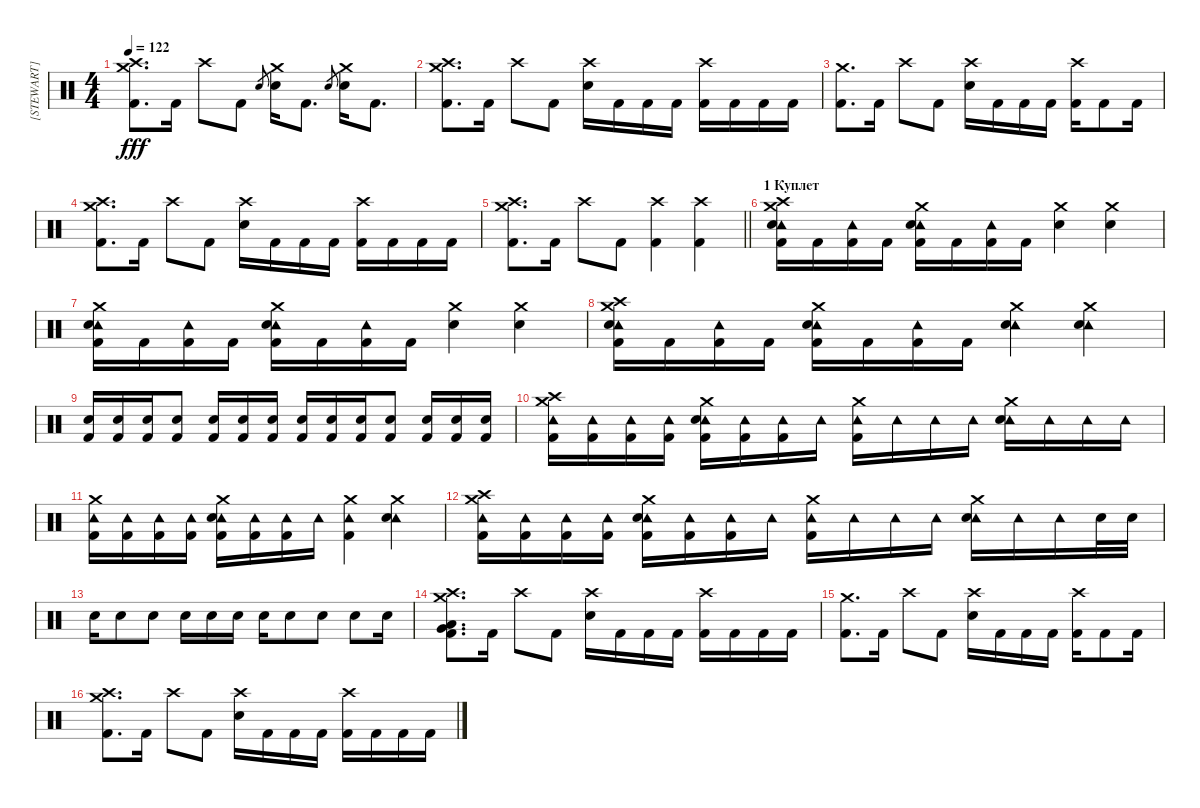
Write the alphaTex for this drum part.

\track ("[STEWART]" "[STEWART]") {instrument percussion}
\staff {score}
\articulation defaults
\ts (4 4)
\tempo 122
\clef neutral
\ks c
("Crash medium (hit)" "Crash high (hit)" "Kick (hit) 2").8{d dy fff} "Kick (hit) 2".16 "Crash high (hit)".8 "Kick (hit) 2".8 "Electric Snare (hit)".8{gr} ("Crash medium (hit)" "Electric Snare (hit)").16 "Kick (hit) 2".8{d} "Electric Snare (hit)".8{gr} ("Crash medium (hit)" "Electric Snare (hit)").16 "Kick (hit) 2".8{d} |
("Crash medium (hit)" "Crash high (hit)" "Kick (hit) 2").8{d} "Kick (hit) 2".16 "Crash high (hit)".8 "Kick (hit) 2".8 ("Crash high (hit)" "Electric Snare (hit)").16 "Kick (hit) 2".16 "Kick (hit) 2".16 "Kick (hit) 2".16 ("Crash high (hit)" "Kick (hit) 2").16 "Kick (hit) 2".16 "Kick (hit) 2".16 "Kick (hit) 2".16 |
("Crash medium (hit)" "Kick (hit) 2").8{d} "Kick (hit) 2".16 "Crash high (hit)".8 "Kick (hit) 2".8 ("Crash high (hit)" "Electric Snare (hit)").16 "Kick (hit) 2".16 "Kick (hit) 2".16 "Kick (hit) 2".16 ("Crash high (hit)" "Kick (hit) 2").16 "Kick (hit) 2".8 "Kick (hit) 2".16 |
("Crash medium (hit)" "Crash high (hit)" "Kick (hit) 2").8{d} "Kick (hit) 2".16 "Crash high (hit)".8 "Kick (hit) 2".8 ("Crash high (hit)" "Electric Snare (hit)").16 "Kick (hit) 2".16 "Kick (hit) 2".16 "Kick (hit) 2".16 ("Crash high (hit)" "Kick (hit) 2").16 "Kick (hit) 2".16 "Kick (hit) 2".16 "Kick (hit) 2".16 |
\barLineRight lightlight
("Crash medium (hit)" "Crash high (hit)" "Kick (hit) 2").8{d} "Kick (hit) 2".16 "Crash high (hit)".8 "Kick (hit) 2".8 ("Crash high (hit)" "Kick (hit) 2").4 ("Crash high (hit)" "Kick (hit) 2").4 |
\section ("" "1 Куплет")
("Crash medium (hit)" "Crash high (hit)" "Tambourine (hit)" "Electric Snare (hit)" "Kick (hit) 2").16 "Kick (hit) 2".16 ("Tambourine (hit)" "Kick (hit) 2").16 "Kick (hit) 2".16 ("Crash medium (hit)" "Tambourine (hit)" "Electric Snare (hit)" "Kick (hit) 2").16 "Kick (hit) 2".16 ("Tambourine (hit)" "Kick (hit) 2").16 "Kick (hit) 2".16 ("Crash medium (hit)" "Electric Snare (hit)").4 ("Crash medium (hit)" "Electric Snare (hit)").4 |
("Crash medium (hit)" "Tambourine (hit)" "Electric Snare (hit)" "Kick (hit) 2").16 "Kick (hit) 2".16 ("Tambourine (hit)" "Kick (hit) 2").16 "Kick (hit) 2".16 ("Crash medium (hit)" "Tambourine (hit)" "Electric Snare (hit)" "Kick (hit) 2").16 "Kick (hit) 2".16 ("Tambourine (hit)" "Kick (hit) 2").16 "Kick (hit) 2".16 ("Crash medium (hit)" "Electric Snare (hit)").4 ("Crash medium (hit)" "Electric Snare (hit)").4 |
("Crash medium (hit)" "Crash high (hit)" "Tambourine (hit)" "Electric Snare (hit)" "Kick (hit) 2").16 "Kick (hit) 2".16 ("Tambourine (hit)" "Kick (hit) 2").16 "Kick (hit) 2".16 ("Crash medium (hit)" "Tambourine (hit)" "Electric Snare (hit)" "Kick (hit) 2").16 "Kick (hit) 2".16 ("Tambourine (hit)" "Kick (hit) 2").16 "Kick (hit) 2".16 ("Crash medium (hit)" "Tambourine (hit)" "Electric Snare (hit)").4 ("Crash medium (hit)" "Tambourine (hit)" "Electric Snare (hit)").4 |
("Electric Snare (hit)" "Kick (hit) 2").16 ("Electric Snare (hit)" "Kick (hit) 2").16 ("Electric Snare (hit)" "Kick (hit) 2").16 ("Electric Snare (hit)" "Kick (hit) 2").8 ("Electric Snare (hit)" "Kick (hit) 2").16 ("Electric Snare (hit)" "Kick (hit) 2").16 ("Electric Snare (hit)" "Kick (hit) 2").16 ("Electric Snare (hit)" "Kick (hit) 2").16 ("Electric Snare (hit)" "Kick (hit) 2").16 ("Electric Snare (hit)" "Kick (hit) 2").16 ("Electric Snare (hit)" "Kick (hit) 2").8 ("Electric Snare (hit)" "Kick (hit) 2").16 ("Electric Snare (hit)" "Kick (hit) 2").16 ("Electric Snare (hit)" "Kick (hit) 2").16 |
("Crash medium (hit)" "Crash high (hit)" "Tambourine (hit)" "Kick (hit) 2").16 ("Tambourine (hit)" "Kick (hit) 2").16 ("Tambourine (hit)" "Kick (hit) 2").16 ("Tambourine (hit)" "Kick (hit) 2").16 ("Crash medium (hit)" "Tambourine (hit)" "Electric Snare (hit)" "Kick (hit) 2").16 ("Tambourine (hit)" "Kick (hit) 2").16 ("Tambourine (hit)" "Kick (hit) 2").16 "Tambourine (hit)".16 ("Crash medium (hit)" "Tambourine (hit)" "Kick (hit) 2").16 "Tambourine (hit)".16 "Tambourine (hit)".16 "Tambourine (hit)".16 ("Crash medium (hit)" "Tambourine (hit)" "Electric Snare (hit)").16 "Tambourine (hit)".16 "Tambourine (hit)".16 "Tambourine (hit)".16 |
("Crash medium (hit)" "Tambourine (hit)" "Kick (hit) 2").16 ("Tambourine (hit)" "Kick (hit) 2").16 ("Tambourine (hit)" "Kick (hit) 2").16 ("Tambourine (hit)" "Kick (hit) 2").16 ("Crash medium (hit)" "Tambourine (hit)" "Electric Snare (hit)" "Kick (hit) 2").16 ("Tambourine (hit)" "Kick (hit) 2").16 ("Tambourine (hit)" "Kick (hit) 2").16 "Tambourine (hit)".16 ("Crash medium (hit)" "Tambourine (hit)" "Kick (hit) 2").4 ("Crash medium (hit)" "Tambourine (hit)" "Electric Snare (hit)").4 |
("Crash medium (hit)" "Crash high (hit)" "Tambourine (hit)" "Kick (hit) 2").16 ("Tambourine (hit)" "Kick (hit) 2").16 ("Tambourine (hit)" "Kick (hit) 2").16 ("Tambourine (hit)" "Kick (hit) 2").16 ("Crash medium (hit)" "Tambourine (hit)" "Electric Snare (hit)" "Kick (hit) 2").16 ("Tambourine (hit)" "Kick (hit) 2").16 ("Tambourine (hit)" "Kick (hit) 2").16 "Tambourine (hit)".16 ("Crash medium (hit)" "Tambourine (hit)" "Kick (hit) 2").16 "Tambourine (hit)".16 "Tambourine (hit)".16 "Tambourine (hit)".16 ("Crash medium (hit)" "Tambourine (hit)" "Electric Snare (hit)").16 "Tambourine (hit)".16 "Tambourine (hit)".16 "Electric Snare (hit)".32 "Electric Snare (hit)".32 |
"Electric Snare (hit)".16 "Electric Snare (hit)".8 "Electric Snare (hit)".8 "Electric Snare (hit)".16 "Electric Snare (hit)".16 "Electric Snare (hit)".16 "Electric Snare (hit)".16 "Electric Snare (hit)".8 "Electric Snare (hit)".8 "Electric Snare (hit)".8 "Electric Snare (hit)".16 |
("Crash medium (hit)" "Crash high (hit)" "Very Low Tom (hit)" "Low Floor Tom (hit)" "Kick (hit) 2").8{d} "Kick (hit) 2".16 "Crash high (hit)".8 "Kick (hit) 2".8 ("Crash high (hit)" "Electric Snare (hit)").16 "Kick (hit) 2".16 "Kick (hit) 2".16 "Kick (hit) 2".16 ("Crash high (hit)" "Kick (hit) 2").16 "Kick (hit) 2".16 "Kick (hit) 2".16 "Kick (hit) 2".16 |
("Crash medium (hit)" "Kick (hit) 2").8{d} "Kick (hit) 2".16 "Crash high (hit)".8 "Kick (hit) 2".8 ("Crash high (hit)" "Electric Snare (hit)").16 "Kick (hit) 2".16 "Kick (hit) 2".16 "Kick (hit) 2".16 ("Crash high (hit)" "Kick (hit) 2").16 "Kick (hit) 2".8 "Kick (hit) 2".16 |
("Crash medium (hit)" "Crash high (hit)" "Kick (hit) 2").8{d} "Kick (hit) 2".16 "Crash high (hit)".8 "Kick (hit) 2".8 ("Crash high (hit)" "Electric Snare (hit)").16 "Kick (hit) 2".16 "Kick (hit) 2".16 "Kick (hit) 2".16 ("Crash high (hit)" "Kick (hit) 2").16 "Kick (hit) 2".16 "Kick (hit) 2".16 "Kick (hit) 2".16
